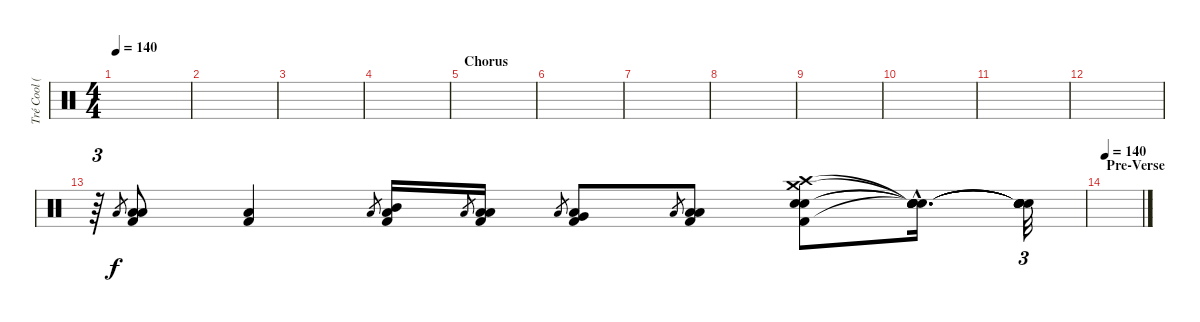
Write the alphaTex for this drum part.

\track ("Tré Cool (Bongos)" "Tré Cool (") {instrument percussion}
\staff {score}
\articulation defaults
\ts (4 4)
\tempo 140
\clef neutral
\ks c
|
|
|
|
\section ("" "Chorus")
|
|
|
|
|
|
|
|
r.64{tu (3 2)} "Low Tom (hit)".8{gr} ("Low Tom (hit)" "Low Tom (hit)" "Kick (hit) 2").8 ("Low Floor Tom (hit)" "Kick (hit) 2").4 "Low Tom (hit)".8{gr} ("Mid Tom (hit)" "Low Tom (hit)" "Kick (hit) 2").16 "Low Tom (hit)".8{gr} ("Low Tom (hit)" "Low Tom (hit)" "Kick (hit) 2").16 "Low Tom (hit)".8{gr} ("Very Low Tom (hit)" "Low Tom (hit)" "Kick (hit) 2").8 "Low Tom (hit)".8{gr} ("Low Floor Tom (hit)" "Low Tom (hit)" "Kick (hit) 2").8 ("Crash high (hit)" "Electric Snare (hit)" "Electric Snare (hit)" "Crash medium (hit)" "Kick (hit) 2").8 ("Snare (hit)"{hac t} "Snare (hit)"{hac t} "Snare (hit)"{hac t} "Snare (hit)"{hac t} "Snare (hit)"{hac t}).16{d} ("Snare (hit)"{t} "Snare (hit)"{t} "Snare (hit)"{t} "Snare (hit)"{t} "Snare (hit)"{t}).32{tu (3 2)} |
\section ("" "Pre-Verse")
\tempo 140
